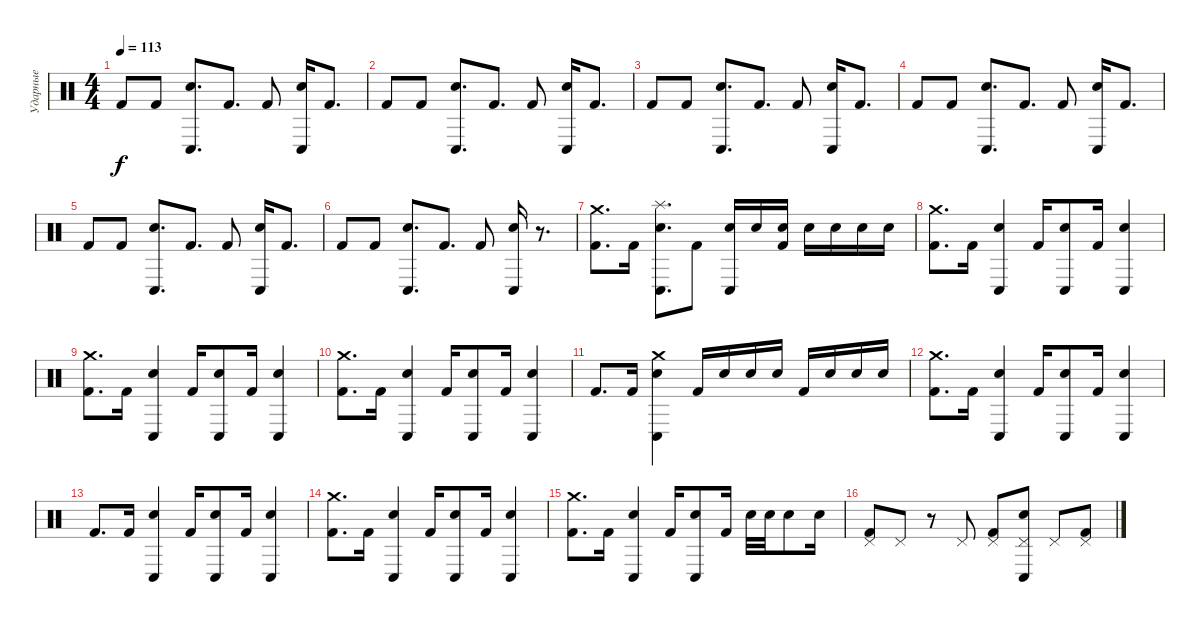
\track ("Ударные" "Ударные") {instrument percussion}
\staff {score}
\articulation defaults
\ts (4 4)
\tempo 113
\clef neutral
\ks c "Kick (hit) 2".8{dy f} "Kick (hit) 2".8
("Electric Snare (hit)" "Conga low (hit)").8{d} "Kick (hit) 2".8{d} "Kick (hit) 2".8 ("Electric Snare (hit)" "Conga low (hit)").16 "Kick (hit) 2".8{d} |
"Kick (hit) 2".8 "Kick (hit) 2".8 ("Electric Snare (hit)" "Conga low (hit)").8{d} "Kick (hit) 2".8{d} "Kick (hit) 2".8 ("Electric Snare (hit)" "Conga low (hit)").16 "Kick (hit) 2".8{d} |
"Kick (hit) 2".8 "Kick (hit) 2".8 ("Electric Snare (hit)" "Conga low (hit)").8{d} "Kick (hit) 2".8{d} "Kick (hit) 2".8 ("Electric Snare (hit)" "Conga low (hit)").16 "Kick (hit) 2".8{d} |
"Kick (hit) 2".8 "Kick (hit) 2".8 ("Electric Snare (hit)" "Conga low (hit)").8{d} "Kick (hit) 2".8{d} "Kick (hit) 2".8 ("Electric Snare (hit)" "Conga low (hit)").16 "Kick (hit) 2".8{d} |
"Kick (hit) 2".8 "Kick (hit) 2".8 ("Electric Snare (hit)" "Conga low (hit)").8{d} "Kick (hit) 2".8{d} "Kick (hit) 2".8 ("Electric Snare (hit)" "Conga low (hit)").16 "Kick (hit) 2".8{d} |
"Kick (hit) 2".8 "Kick (hit) 2".8 ("Electric Snare (hit)" "Conga low (hit)").8{d} "Kick (hit) 2".8{d} "Kick (hit) 2".8 ("Electric Snare (hit)" "Conga low (hit)").16 r.8{d} |
("Crash medium (hit)" "Kick (hit) 2").8{d} "Kick (hit) 2".16 ("Splash (hit)" "Electric Snare (hit)" "Conga low (hit)").8{d} "Kick (hit) 2".8 ("Electric Snare (hit)" "Conga low (hit)").16 "Electric Snare (hit)".16 ("Electric Snare (hit)" "Kick (hit) 2").16 "Electric Snare (hit)".16 "Electric Snare (hit)".16 "Electric Snare (hit)".16 "Electric Snare (hit)".16 |
("Crash medium (hit)" "Kick (hit) 2").8{d} "Kick (hit) 2".16 ("Electric Snare (hit)" "Conga low (hit)").4 "Kick (hit) 2".16 ("Electric Snare (hit)" "Conga low (hit)").8 "Kick (hit) 2".16 ("Electric Snare (hit)" "Conga low (hit)").4 |
("Crash medium (hit)" "Kick (hit) 2").8{d} "Kick (hit) 2".16 ("Electric Snare (hit)" "Conga low (hit)").4 "Kick (hit) 2".16 ("Electric Snare (hit)" "Conga low (hit)").8 "Kick (hit) 2".16 ("Electric Snare (hit)" "Conga low (hit)").4 |
("Crash medium (hit)" "Kick (hit) 2").8{d} "Kick (hit) 2".16 ("Electric Snare (hit)" "Conga low (hit)").4 "Kick (hit) 2".16 ("Electric Snare (hit)" "Conga low (hit)").8 "Kick (hit) 2".16 ("Electric Snare (hit)" "Conga low (hit)").4 |
"Kick (hit) 2".8{d} "Kick (hit) 2".16 ("Crash medium (hit)" "Electric Snare (hit)" "Conga low (hit)").4 "Kick (hit) 2".16 "Electric Snare (hit)".16 "Electric Snare (hit)".16 "Electric Snare (hit)".16 "Kick (hit) 2".16 "Electric Snare (hit)".16 "Electric Snare (hit)".16 "Electric Snare (hit)".16 |
("Crash medium (hit)" "Kick (hit) 2").8{d} "Kick (hit) 2".16 ("Electric Snare (hit)" "Conga low (hit)").4 "Kick (hit) 2".16 ("Electric Snare (hit)" "Conga low (hit)").8 "Kick (hit) 2".16 ("Electric Snare (hit)" "Conga low (hit)").4 |
"Kick (hit) 2".8{d} "Kick (hit) 2".16 ("Electric Snare (hit)" "Conga low (hit)").4 "Kick (hit) 2".16 ("Electric Snare (hit)" "Conga low (hit)").8 "Kick (hit) 2".16 ("Electric Snare (hit)" "Conga low (hit)").4 |
("Crash medium (hit)" "Kick (hit) 2").8{d} "Kick (hit) 2".16 ("Electric Snare (hit)" "Conga low (hit)").4 "Kick (hit) 2".16 ("Electric Snare (hit)" "Conga low (hit)").8 "Kick (hit) 2".16 ("Electric Snare (hit)" "Conga low (hit)").4 |
("Crash medium (hit)" "Kick (hit) 2").8{d} "Kick (hit) 2".16 ("Electric Snare (hit)" "Conga low (hit)").4 "Kick (hit) 2".16 ("Electric Snare (hit)" "Conga low (hit)").8 "Kick (hit) 2".16 "Electric Snare (hit)".32 "Electric Snare (hit)".32 "Electric Snare (hit)".8 "Electric Snare (hit)".16 |
("Pedal Hi-Hat (hit)" "Kick (hit) 2").8 "Pedal Hi-Hat (hit)".8 r.8 "Pedal Hi-Hat (hit)".8 ("Pedal Hi-Hat (hit)" "Kick (hit) 2").8 ("Pedal Hi-Hat (hit)" "Electric Snare (hit)" "Conga low (hit)").8 "Pedal Hi-Hat (hit)".8 ("Pedal Hi-Hat (hit)" "Kick (hit) 2").8
